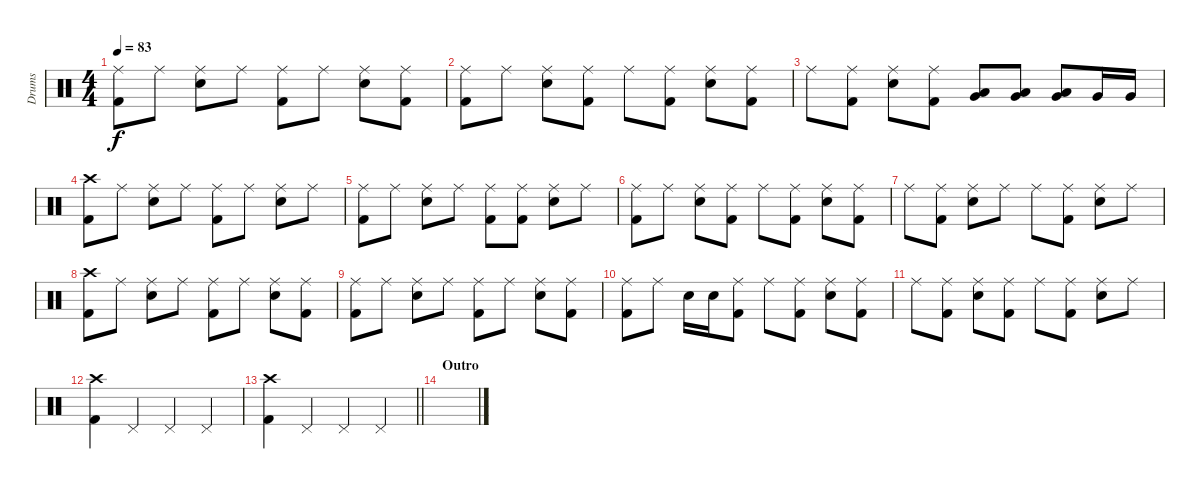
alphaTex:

\track ("Drums" "Drums") {instrument percussion}
\staff {score}
\articulation defaults
\ts (4 4)
\tempo 83
\clef neutral
\ks c
("Ride (middle)" "Kick (hit) 2").8{dy f} "Ride (middle)".8 ("Ride (middle)" "Snare (hit) 2").8 "Ride (middle)".8 ("Ride (middle)" "Kick (hit) 2").8 "Ride (middle)".8 ("Ride (middle)" "Snare (hit) 2").8 ("Ride (middle)" "Kick (hit) 2").8 |
("Ride (middle)" "Kick (hit) 2").8 "Ride (middle)".8 ("Ride (middle)" "Snare (hit) 2").8 ("Ride (middle)" "Kick (hit) 2").8 "Ride (middle)".8 ("Ride (middle)" "Kick (hit) 2").8 ("Ride (middle)" "Snare (hit) 2").8 ("Ride (middle)" "Kick (hit) 2").8 |
"Ride (middle)".8 ("Ride (middle)" "Kick (hit) 2").8 ("Ride (middle)" "Snare (hit) 2").8 ("Ride (middle)" "Kick (hit) 2").8 ("Low Tom (hit)" "Very Low Tom (hit)").8 ("Low Tom (hit)" "Very Low Tom (hit)").8 ("Low Tom (hit)" "Very Low Tom (hit)").8 "Very Low Tom (hit)".16 "Very Low Tom (hit)".16 |
("Crash high (hit)" "Kick (hit) 2").8 "Ride (middle)".8 ("Ride (middle)" "Snare (hit) 2").8 "Ride (middle)".8 ("Ride (middle)" "Kick (hit) 2").8 "Ride (middle)".8 ("Ride (middle)" "Snare (hit) 2").8 "Ride (middle)".8 |
("Ride (middle)" "Kick (hit) 2").8 "Ride (middle)".8 ("Ride (middle)" "Snare (hit) 2").8 "Ride (middle)".8 ("Ride (middle)" "Kick (hit) 2").8 ("Ride (middle)" "Kick (hit) 2").8 ("Ride (middle)" "Snare (hit) 2").8 "Ride (middle)".8 |
("Ride (middle)" "Kick (hit) 2").8 "Ride (middle)".8 ("Ride (middle)" "Snare (hit) 2").8 ("Ride (middle)" "Kick (hit) 2").8 "Ride (middle)".8 ("Ride (middle)" "Kick (hit) 2").8 ("Ride (middle)" "Snare (hit) 2").8 ("Ride (middle)" "Kick (hit) 2").8 |
"Ride (middle)".8 ("Ride (middle)" "Kick (hit) 2").8 ("Ride (middle)" "Snare (hit) 2").8 "Ride (middle)".8 "Ride (middle)".8 ("Ride (middle)" "Kick (hit) 2").8 ("Ride (middle)" "Snare (hit) 2").8 "Ride (middle)".8 |
("Crash high (hit)" "Kick (hit) 2").8 "Ride (middle)".8 ("Ride (middle)" "Snare (hit) 2").8 "Ride (middle)".8 ("Ride (middle)" "Kick (hit) 2").8 "Ride (middle)".8 ("Ride (middle)" "Snare (hit) 2").8 ("Ride (middle)" "Kick (hit) 2").8 |
("Ride (middle)" "Kick (hit) 2").8 "Ride (middle)".8 ("Ride (middle)" "Snare (hit) 2").8 "Ride (middle)".8 ("Ride (middle)" "Kick (hit) 2").8 "Ride (middle)".8 ("Ride (middle)" "Snare (hit) 2").8 ("Ride (middle)" "Kick (hit) 2").8 |
("Ride (middle)" "Kick (hit) 2").8 "Ride (middle)".8 "Snare (hit) 2".16 "Snare (hit) 2".16 ("Ride (middle)" "Kick (hit) 2").8 "Ride (middle)".8 ("Ride (middle)" "Kick (hit) 2").8 ("Ride (middle)" "Snare (hit) 2").8 ("Ride (middle)" "Kick (hit) 2").8 |
"Ride (middle)".8 ("Ride (middle)" "Kick (hit) 2").8 ("Ride (middle)" "Snare (hit) 2").8 ("Ride (middle)" "Kick (hit) 2").8 "Ride (middle)".8 ("Ride (middle)" "Kick (hit) 2").8 ("Ride (middle)" "Snare (hit) 2").8 "Ride (middle)".8 |
("Crash high (hit)" "Kick (hit) 2").4 "Pedal Hi-Hat (hit)".4 "Pedal Hi-Hat (hit)".4 "Pedal Hi-Hat (hit)".4 |
\barLineRight lightlight
("Crash high (hit)" "Kick (hit) 2").4 "Pedal Hi-Hat (hit)".4 "Pedal Hi-Hat (hit)".4 "Pedal Hi-Hat (hit)".4 |
\section ("" "Outro")
